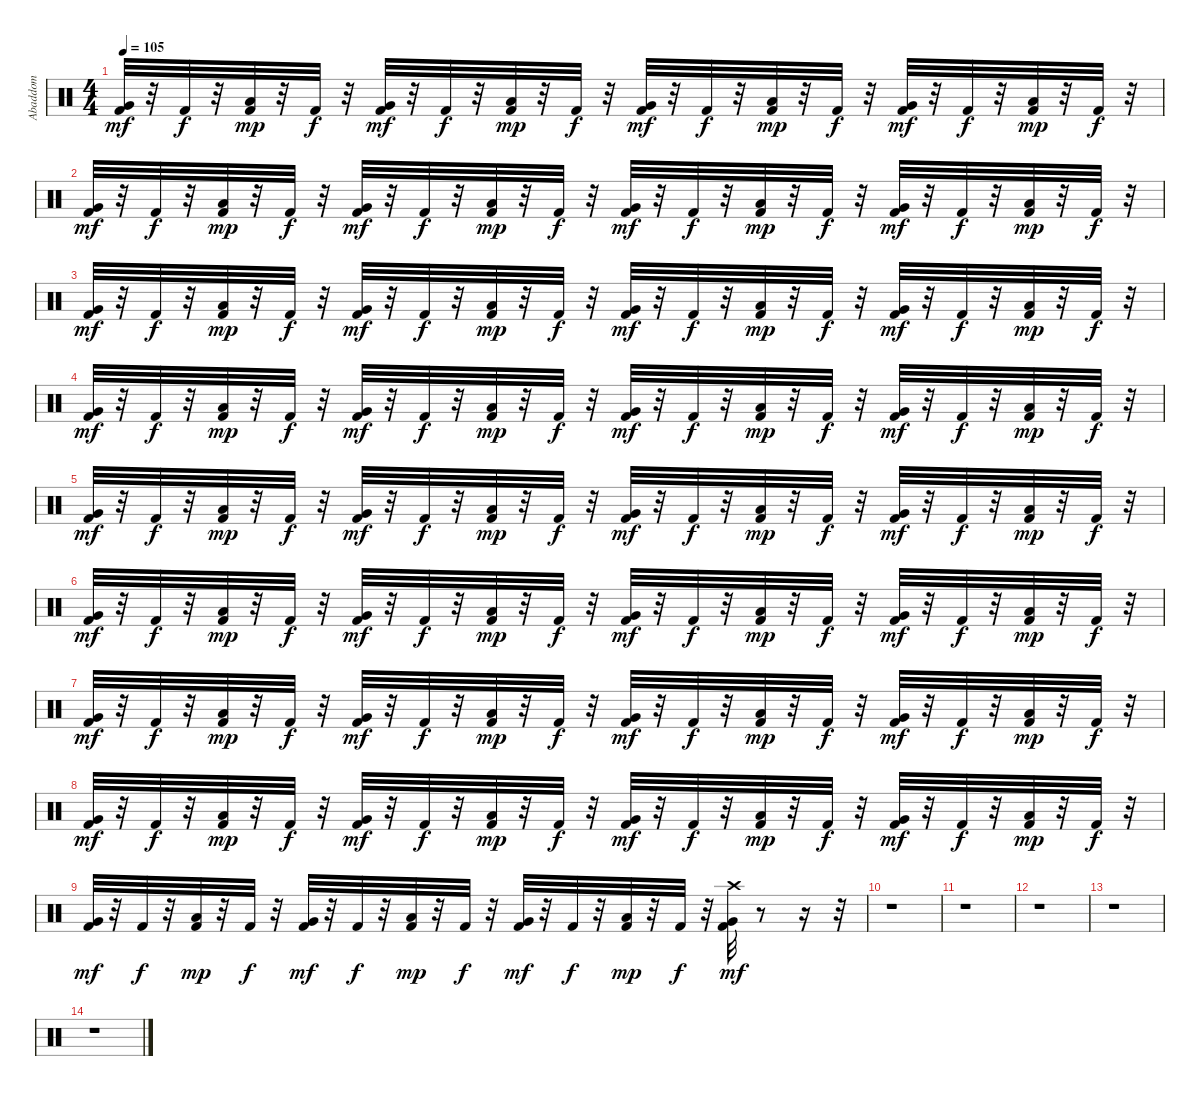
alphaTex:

\track ("Abaddom" "Abaddom") {instrument percussion}
\staff {score}
\articulation defaults
\ts (4 4)
\tempo 105
\clef neutral
\ks c
("Kick (hit) 2" "Very Low Tom (hit)").32{dy mf} r.32 "Kick (hit) 2".32{dy f} r.32 ("Kick (hit) 2" "Low Floor Tom (hit)").32{dy mp} r.32 "Kick (hit) 2".32{dy f} r.32 ("Very Low Tom (hit)" "Kick (hit) 2").32{dy mf} r.32 "Kick (hit) 2".32{dy f} r.32 ("Low Floor Tom (hit)" "Kick (hit) 2").32{dy mp} r.32 "Kick (hit) 2".32{dy f} r.32 ("Very Low Tom (hit)" "Kick (hit) 2").32{dy mf} r.32 "Kick (hit) 2".32{dy f} r.32 ("Low Floor Tom (hit)" "Kick (hit) 2").32{dy mp} r.32 "Kick (hit) 2".32{dy f} r.32 ("Very Low Tom (hit)" "Kick (hit) 2").32{dy mf} r.32 "Kick (hit) 2".32{dy f} r.32 ("Low Floor Tom (hit)" "Kick (hit) 2").32{dy mp} r.32 "Kick (hit) 2".32{dy f} r.32 |
("Kick (hit) 2" "Very Low Tom (hit)").32{dy mf} r.32 "Kick (hit) 2".32{dy f} r.32 ("Kick (hit) 2" "Low Floor Tom (hit)").32{dy mp} r.32 "Kick (hit) 2".32{dy f} r.32 ("Very Low Tom (hit)" "Kick (hit) 2").32{dy mf} r.32 "Kick (hit) 2".32{dy f} r.32 ("Low Floor Tom (hit)" "Kick (hit) 2").32{dy mp} r.32 "Kick (hit) 2".32{dy f} r.32 ("Very Low Tom (hit)" "Kick (hit) 2").32{dy mf} r.32 "Kick (hit) 2".32{dy f} r.32 ("Low Floor Tom (hit)" "Kick (hit) 2").32{dy mp} r.32 "Kick (hit) 2".32{dy f} r.32 ("Very Low Tom (hit)" "Kick (hit) 2").32{dy mf} r.32 "Kick (hit) 2".32{dy f} r.32 ("Low Floor Tom (hit)" "Kick (hit) 2").32{dy mp} r.32 "Kick (hit) 2".32{dy f} r.32 |
("Kick (hit) 2" "Very Low Tom (hit)").32{dy mf} r.32 "Kick (hit) 2".32{dy f} r.32 ("Kick (hit) 2" "Low Floor Tom (hit)").32{dy mp} r.32 "Kick (hit) 2".32{dy f} r.32 ("Very Low Tom (hit)" "Kick (hit) 2").32{dy mf} r.32 "Kick (hit) 2".32{dy f} r.32 ("Low Floor Tom (hit)" "Kick (hit) 2").32{dy mp} r.32 "Kick (hit) 2".32{dy f} r.32 ("Very Low Tom (hit)" "Kick (hit) 2").32{dy mf} r.32 "Kick (hit) 2".32{dy f} r.32 ("Low Floor Tom (hit)" "Kick (hit) 2").32{dy mp} r.32 "Kick (hit) 2".32{dy f} r.32 ("Very Low Tom (hit)" "Kick (hit) 2").32{dy mf} r.32 "Kick (hit) 2".32{dy f} r.32 ("Low Floor Tom (hit)" "Kick (hit) 2").32{dy mp} r.32 "Kick (hit) 2".32{dy f} r.32 |
("Kick (hit) 2" "Very Low Tom (hit)").32{dy mf} r.32 "Kick (hit) 2".32{dy f} r.32 ("Kick (hit) 2" "Low Floor Tom (hit)").32{dy mp} r.32 "Kick (hit) 2".32{dy f} r.32 ("Very Low Tom (hit)" "Kick (hit) 2").32{dy mf} r.32 "Kick (hit) 2".32{dy f} r.32 ("Low Floor Tom (hit)" "Kick (hit) 2").32{dy mp} r.32 "Kick (hit) 2".32{dy f} r.32 ("Very Low Tom (hit)" "Kick (hit) 2").32{dy mf} r.32 "Kick (hit) 2".32{dy f} r.32 ("Low Floor Tom (hit)" "Kick (hit) 2").32{dy mp} r.32 "Kick (hit) 2".32{dy f} r.32 ("Very Low Tom (hit)" "Kick (hit) 2").32{dy mf} r.32 "Kick (hit) 2".32{dy f} r.32 ("Low Floor Tom (hit)" "Kick (hit) 2").32{dy mp} r.32 "Kick (hit) 2".32{dy f} r.32 |
("Kick (hit) 2" "Very Low Tom (hit)").32{dy mf} r.32 "Kick (hit) 2".32{dy f} r.32 ("Kick (hit) 2" "Low Floor Tom (hit)").32{dy mp} r.32 "Kick (hit) 2".32{dy f} r.32 ("Very Low Tom (hit)" "Kick (hit) 2").32{dy mf} r.32 "Kick (hit) 2".32{dy f} r.32 ("Low Floor Tom (hit)" "Kick (hit) 2").32{dy mp} r.32 "Kick (hit) 2".32{dy f} r.32 ("Very Low Tom (hit)" "Kick (hit) 2").32{dy mf} r.32 "Kick (hit) 2".32{dy f} r.32 ("Low Floor Tom (hit)" "Kick (hit) 2").32{dy mp} r.32 "Kick (hit) 2".32{dy f} r.32 ("Very Low Tom (hit)" "Kick (hit) 2").32{dy mf} r.32 "Kick (hit) 2".32{dy f} r.32 ("Low Floor Tom (hit)" "Kick (hit) 2").32{dy mp} r.32 "Kick (hit) 2".32{dy f} r.32 |
("Kick (hit) 2" "Very Low Tom (hit)").32{dy mf} r.32 "Kick (hit) 2".32{dy f} r.32 ("Kick (hit) 2" "Low Floor Tom (hit)").32{dy mp} r.32 "Kick (hit) 2".32{dy f} r.32 ("Very Low Tom (hit)" "Kick (hit) 2").32{dy mf} r.32 "Kick (hit) 2".32{dy f} r.32 ("Low Floor Tom (hit)" "Kick (hit) 2").32{dy mp} r.32 "Kick (hit) 2".32{dy f} r.32 ("Very Low Tom (hit)" "Kick (hit) 2").32{dy mf} r.32 "Kick (hit) 2".32{dy f} r.32 ("Low Floor Tom (hit)" "Kick (hit) 2").32{dy mp} r.32 "Kick (hit) 2".32{dy f} r.32 ("Very Low Tom (hit)" "Kick (hit) 2").32{dy mf} r.32 "Kick (hit) 2".32{dy f} r.32 ("Low Floor Tom (hit)" "Kick (hit) 2").32{dy mp} r.32 "Kick (hit) 2".32{dy f} r.32 |
("Kick (hit) 2" "Very Low Tom (hit)").32{dy mf} r.32 "Kick (hit) 2".32{dy f} r.32 ("Kick (hit) 2" "Low Floor Tom (hit)").32{dy mp} r.32 "Kick (hit) 2".32{dy f} r.32 ("Very Low Tom (hit)" "Kick (hit) 2").32{dy mf} r.32 "Kick (hit) 2".32{dy f} r.32 ("Low Floor Tom (hit)" "Kick (hit) 2").32{dy mp} r.32 "Kick (hit) 2".32{dy f} r.32 ("Very Low Tom (hit)" "Kick (hit) 2").32{dy mf} r.32 "Kick (hit) 2".32{dy f} r.32 ("Low Floor Tom (hit)" "Kick (hit) 2").32{dy mp} r.32 "Kick (hit) 2".32{dy f} r.32 ("Very Low Tom (hit)" "Kick (hit) 2").32{dy mf} r.32 "Kick (hit) 2".32{dy f} r.32 ("Low Floor Tom (hit)" "Kick (hit) 2").32{dy mp} r.32 "Kick (hit) 2".32{dy f} r.32 |
("Kick (hit) 2" "Very Low Tom (hit)").32{dy mf} r.32 "Kick (hit) 2".32{dy f} r.32 ("Kick (hit) 2" "Low Floor Tom (hit)").32{dy mp} r.32 "Kick (hit) 2".32{dy f} r.32 ("Very Low Tom (hit)" "Kick (hit) 2").32{dy mf} r.32 "Kick (hit) 2".32{dy f} r.32 ("Low Floor Tom (hit)" "Kick (hit) 2").32{dy mp} r.32 "Kick (hit) 2".32{dy f} r.32 ("Very Low Tom (hit)" "Kick (hit) 2").32{dy mf} r.32 "Kick (hit) 2".32{dy f} r.32 ("Low Floor Tom (hit)" "Kick (hit) 2").32{dy mp} r.32 "Kick (hit) 2".32{dy f} r.32 ("Very Low Tom (hit)" "Kick (hit) 2").32{dy mf} r.32 "Kick (hit) 2".32{dy f} r.32 ("Low Floor Tom (hit)" "Kick (hit) 2").32{dy mp} r.32 "Kick (hit) 2".32{dy f} r.32 |
("Kick (hit) 2" "Very Low Tom (hit)").32{dy mf} r.32 "Kick (hit) 2".32{dy f} r.32 ("Kick (hit) 2" "Low Floor Tom (hit)").32{dy mp} r.32 "Kick (hit) 2".32{dy f} r.32 ("Very Low Tom (hit)" "Kick (hit) 2").32{dy mf} r.32 "Kick (hit) 2".32{dy f} r.32 ("Low Floor Tom (hit)" "Kick (hit) 2").32{dy mp} r.32 "Kick (hit) 2".32{dy f} r.32 ("Very Low Tom (hit)" "Kick (hit) 2").32{dy mf} r.32 "Kick (hit) 2".32{dy f} r.32 ("Low Floor Tom (hit)" "Kick (hit) 2").32{dy mp} r.32 "Kick (hit) 2".32{dy f} r.32 ("Crash high (hit)" "Very Low Tom (hit)" "Kick (hit) 2").32{dy mf} r.8 r.16 r.32 |
r.1 |
r.1 |
r.1 |
r.1 |
r.1
